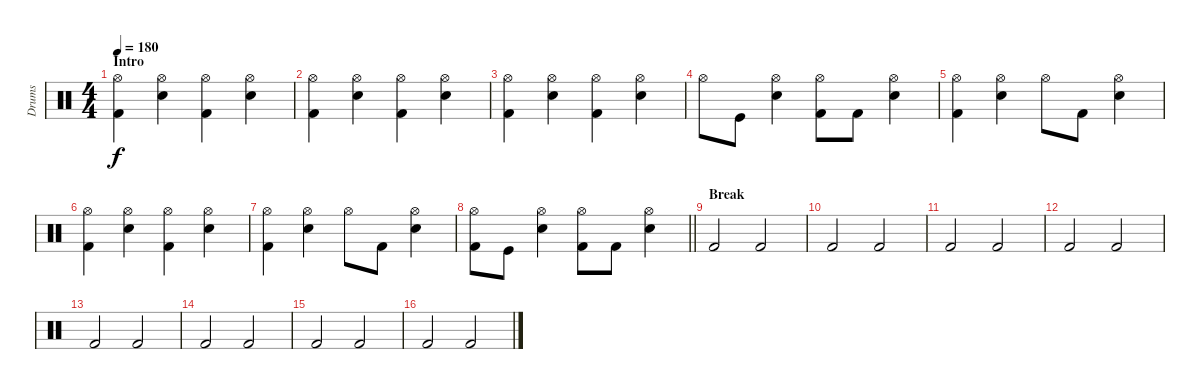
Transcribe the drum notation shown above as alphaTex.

\track ("Drums" "Drums") {instrument percussion}
\staff {score}
\articulation defaults
\ts (4 4)
\section ("" "Intro")
\tempo 180
\clef neutral
\ks c
("Hi-Hat (open)" "Kick (hit) 2").4{dy f} ("Hi-Hat (open)" "Electric Snare (hit)").4 ("Hi-Hat (open)" "Kick (hit) 2").4 ("Hi-Hat (open)" "Electric Snare (hit)").4 |
("Hi-Hat (open)" "Kick (hit) 2").4 ("Hi-Hat (open)" "Electric Snare (hit)").4 ("Hi-Hat (open)" "Kick (hit) 2").4 ("Hi-Hat (open)" "Electric Snare (hit)").4 |
("Hi-Hat (open)" "Kick (hit) 2").4 ("Hi-Hat (open)" "Electric Snare (hit)").4 ("Hi-Hat (open)" "Kick (hit) 2").4 ("Hi-Hat (open)" "Electric Snare (hit)").4 |
"Hi-Hat (open)".8 "Kick (hit)".8 ("Hi-Hat (open)" "Electric Snare (hit)").4 ("Hi-Hat (open)" "Kick (hit) 2").8 "Kick (hit) 2".8 ("Hi-Hat (open)" "Electric Snare (hit)").4 |
("Hi-Hat (open)" "Kick (hit) 2").4 ("Hi-Hat (open)" "Electric Snare (hit)").4 "Hi-Hat (open)".8 "Kick (hit) 2".8 ("Hi-Hat (open)" "Electric Snare (hit)").4 |
("Hi-Hat (open)" "Kick (hit) 2").4 ("Hi-Hat (open)" "Electric Snare (hit)").4 ("Hi-Hat (open)" "Kick (hit) 2").4 ("Hi-Hat (open)" "Electric Snare (hit)").4 |
("Hi-Hat (open)" "Kick (hit) 2").4 ("Hi-Hat (open)" "Electric Snare (hit)").4 "Hi-Hat (open)".8 "Kick (hit) 2".8 ("Hi-Hat (open)" "Electric Snare (hit)").4 |
\barLineRight lightlight
("Hi-Hat (open)" "Kick (hit) 2").8 "Kick (hit)".8 ("Hi-Hat (open)" "Electric Snare (hit)").4 ("Hi-Hat (open)" "Kick (hit) 2").8 "Kick (hit) 2".8 ("Hi-Hat (open)" "Electric Snare (hit)").4 |
\section ("" "Break")
"Kick (hit) 2".2 "Kick (hit) 2".2 |
"Kick (hit) 2".2 "Kick (hit) 2".2 |
"Kick (hit) 2".2 "Kick (hit) 2".2 |
"Kick (hit) 2".2 "Kick (hit) 2".2 |
"Kick (hit) 2".2 "Kick (hit) 2".2 |
"Kick (hit) 2".2 "Kick (hit) 2".2 |
"Kick (hit) 2".2 "Kick (hit) 2".2 |
"Kick (hit) 2".2 "Kick (hit) 2".2
